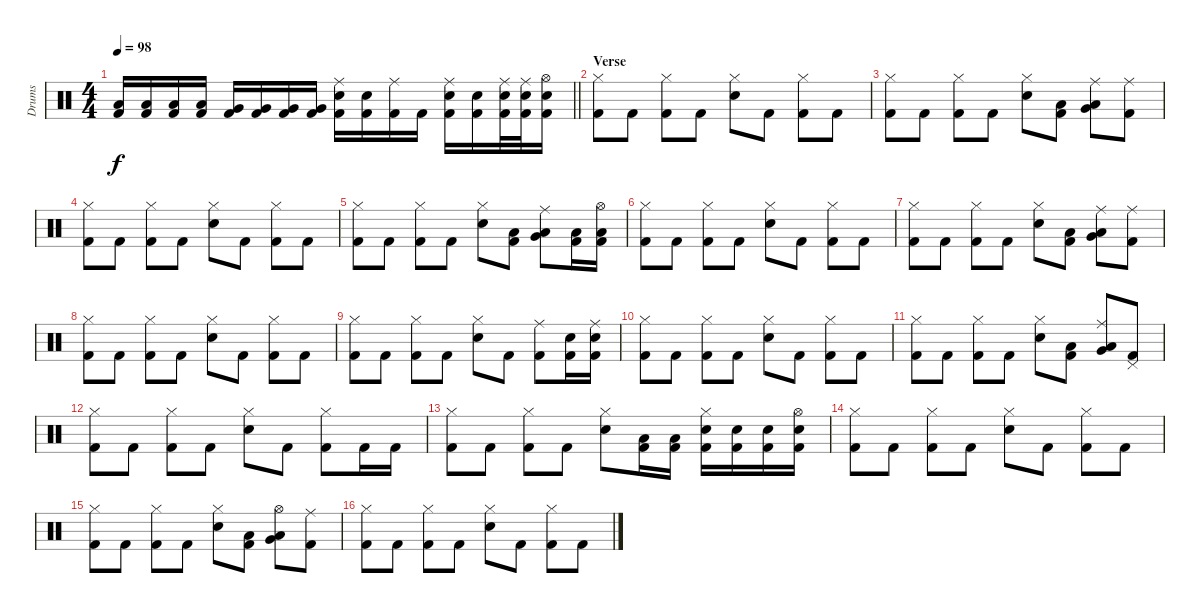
\track ("Drums" "Drums") {instrument percussion}
\staff {score}
\articulation defaults
\ts (4 4)
\tempo 98
\clef neutral
\barLineRight lightlight
\ks c
("Low Floor Tom (hit)" "Kick (hit) 2").16{dy f} ("Low Floor Tom (hit)" "Kick (hit) 2").16 ("Low Floor Tom (hit)" "Kick (hit) 2").16 ("Low Floor Tom (hit)" "Kick (hit) 2").16 ("Very Low Tom (hit)" "Kick (hit) 2").16 ("Very Low Tom (hit)" "Kick (hit) 2").16 ("Very Low Tom (hit)" "Kick (hit) 2").16 ("Very Low Tom (hit)" "Kick (hit) 2").16 ("Snare (hit) 2" "Kick (hit) 2" "Ride (middle)").16 ("Snare (hit) 2" "Kick (hit) 2").16 ("Kick (hit) 2" "Ride (middle)").16 "Kick (hit) 2".16 ("Snare (hit) 2" "Kick (hit) 2" "Ride (middle)").16 ("Snare (hit) 2" "Kick (hit) 2").16 ("Electric Snare (hit)" "Kick (hit) 2" "Ride (middle)").32 ("Electric Snare (hit)" "Kick (hit) 2" "Ride (middle)").32 ("Electric Snare (hit)" "Kick (hit) 2" "Hi-Hat (open)").16 |
\section ("" "Verse")
("Hi-Hat (closed)" "Kick (hit) 2").8 "Kick (hit) 2".8 ("Hi-Hat (closed)" "Kick (hit) 2").8 "Kick (hit) 2".8 ("Hi-Hat (closed)" "Snare (hit) 2").8 "Kick (hit) 2".8 ("Hi-Hat (closed)" "Kick (hit) 2").8 "Kick (hit) 2".8 |
("Hi-Hat (closed)" "Kick (hit) 2").8 "Kick (hit) 2".8 ("Hi-Hat (closed)" "Kick (hit) 2").8 "Kick (hit) 2".8 ("Hi-Hat (closed)" "Snare (hit) 2").8 ("Kick (hit) 2" "Low Tom (hit)").8 ("Ride (middle)" "Very Low Tom (hit)" "Low Floor Tom (hit)").8 ("Kick (hit) 2" "Ride (middle)").8 |
("Hi-Hat (closed)" "Kick (hit) 2").8 "Kick (hit) 2".8 ("Hi-Hat (closed)" "Kick (hit) 2").8 "Kick (hit) 2".8 ("Hi-Hat (closed)" "Snare (hit) 2").8 "Kick (hit) 2".8 ("Hi-Hat (closed)" "Kick (hit) 2").8 "Kick (hit) 2".8 |
("Hi-Hat (closed)" "Kick (hit) 2").8 "Kick (hit) 2".8 ("Hi-Hat (closed)" "Kick (hit) 2").8 "Kick (hit) 2".8 ("Hi-Hat (closed)" "Snare (hit) 2").8 ("Kick (hit) 2" "Low Tom (hit)").8 ("Ride (middle)" "Very Low Tom (hit)" "Low Floor Tom (hit)").8 ("Kick (hit) 2" "Low Floor Tom (hit)").16 ("Low Floor Tom (hit)" "Kick (hit) 2" "Hi-Hat (open)").16 |
("Hi-Hat (closed)" "Kick (hit) 2").8 "Kick (hit) 2".8 ("Hi-Hat (closed)" "Kick (hit) 2").8 "Kick (hit) 2".8 ("Hi-Hat (closed)" "Snare (hit) 2").8 "Kick (hit) 2".8 ("Hi-Hat (closed)" "Kick (hit) 2").8 "Kick (hit) 2".8 |
("Hi-Hat (closed)" "Kick (hit) 2").8 "Kick (hit) 2".8 ("Hi-Hat (closed)" "Kick (hit) 2").8 "Kick (hit) 2".8 ("Hi-Hat (closed)" "Snare (hit) 2").8 ("Kick (hit) 2" "Low Tom (hit)").8 ("Ride (middle)" "Very Low Tom (hit)" "Low Floor Tom (hit)").8 ("Kick (hit) 2" "Ride (middle)").8 |
("Hi-Hat (closed)" "Kick (hit) 2").8 "Kick (hit) 2".8 ("Hi-Hat (closed)" "Kick (hit) 2").8 "Kick (hit) 2".8 ("Hi-Hat (closed)" "Snare (hit) 2").8 "Kick (hit) 2".8 ("Hi-Hat (closed)" "Kick (hit) 2").8 "Kick (hit) 2".8 |
("Hi-Hat (closed)" "Kick (hit) 2").8 "Kick (hit) 2".8 ("Hi-Hat (closed)" "Kick (hit) 2").8 "Kick (hit) 2".8 ("Hi-Hat (closed)" "Snare (hit) 2").8 "Kick (hit) 2".8 ("Ride (middle)" "Kick (hit) 2").8 ("Kick (hit) 2" "Snare (hit) 2").16 ("Snare (hit) 2" "Kick (hit) 2" "Ride (middle)").16 |
("Hi-Hat (closed)" "Kick (hit) 2").8 "Kick (hit) 2".8 ("Hi-Hat (closed)" "Kick (hit) 2").8 "Kick (hit) 2".8 ("Hi-Hat (closed)" "Snare (hit) 2").8 "Kick (hit) 2".8 ("Hi-Hat (closed)" "Kick (hit) 2").8 "Kick (hit) 2".8 |
("Hi-Hat (closed)" "Kick (hit) 2").8 "Kick (hit) 2".8 ("Hi-Hat (closed)" "Kick (hit) 2").8 "Kick (hit) 2".8 ("Hi-Hat (closed)" "Snare (hit) 2").8 ("Kick (hit) 2" "Low Tom (hit)").8 ("Ride (middle)" "Very Low Tom (hit)" "Low Floor Tom (hit)").8 ("Kick (hit) 2" "Pedal Hi-Hat (hit)").8 |
("Hi-Hat (closed)" "Kick (hit) 2").8 "Kick (hit) 2".8 ("Hi-Hat (closed)" "Kick (hit) 2").8 "Kick (hit) 2".8 ("Hi-Hat (closed)" "Snare (hit) 2").8 "Kick (hit) 2".8 ("Hi-Hat (closed)" "Kick (hit) 2").8 "Kick (hit) 2".16 "Kick (hit) 2".16 |
("Hi-Hat (closed)" "Kick (hit) 2").8 "Kick (hit) 2".8 ("Hi-Hat (closed)" "Kick (hit) 2").8 "Kick (hit) 2".8 ("Hi-Hat (closed)" "Snare (hit) 2").8 ("Kick (hit) 2" "Low Floor Tom (hit)").16 ("Low Floor Tom (hit)" "Kick (hit) 2").16 ("Hi-Hat (closed)" "Kick (hit) 2" "Electric Snare (hit)").16 ("Kick (hit) 2" "Electric Snare (hit)").16 ("Kick (hit) 2" "Electric Snare (hit)").16 ("Kick (hit) 2" "Electric Snare (hit)" "Hi-Hat (open)").16 |
("Hi-Hat (closed)" "Kick (hit) 2").8 "Kick (hit) 2".8 ("Hi-Hat (closed)" "Kick (hit) 2").8 "Kick (hit) 2".8 ("Hi-Hat (closed)" "Snare (hit) 2").8 "Kick (hit) 2".8 ("Hi-Hat (closed)" "Kick (hit) 2").8 "Kick (hit) 2".8 |
("Hi-Hat (closed)" "Kick (hit) 2").8 "Kick (hit) 2".8 ("Hi-Hat (closed)" "Kick (hit) 2").8 "Kick (hit) 2".8 ("Hi-Hat (closed)" "Snare (hit) 2").8 ("Kick (hit) 2" "Low Tom (hit)").8 ("Hi-Hat (open)" "Very Low Tom (hit)" "Low Floor Tom (hit)").8 ("Kick (hit) 2" "Ride (middle)").8 |
("Hi-Hat (closed)" "Kick (hit) 2").8 "Kick (hit) 2".8 ("Hi-Hat (closed)" "Kick (hit) 2").8 "Kick (hit) 2".8 ("Hi-Hat (closed)" "Snare (hit) 2").8 "Kick (hit) 2".8 ("Hi-Hat (closed)" "Kick (hit) 2").8 "Kick (hit) 2".8
